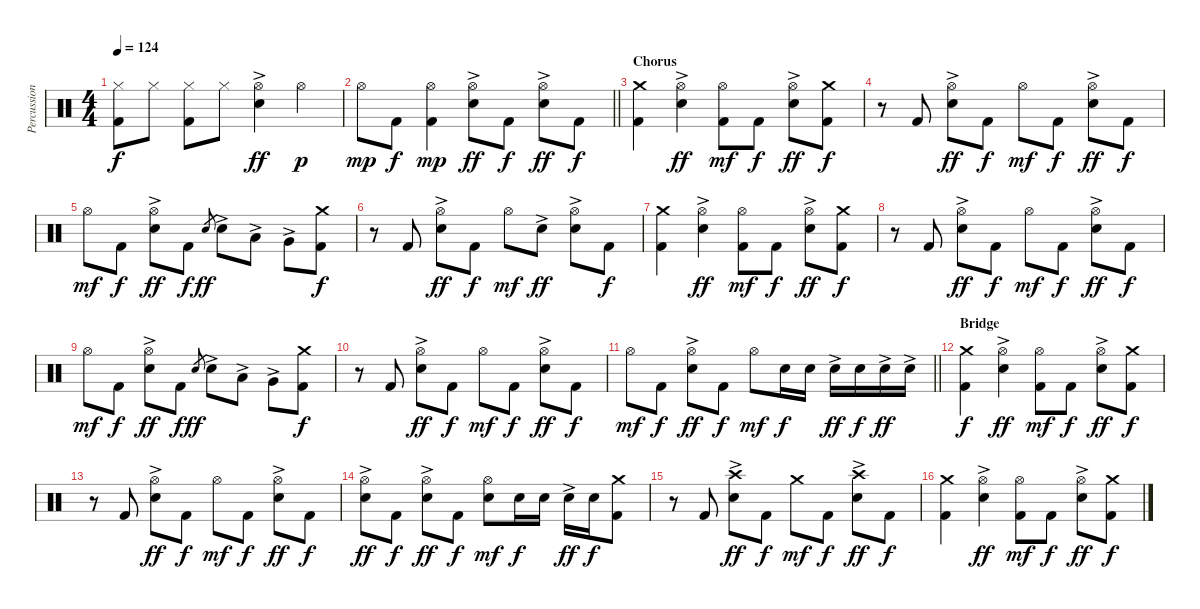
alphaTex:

\track ("Percussion" "Percussion") {instrument percussion}
\staff {score}
\articulation defaults
\ts (4 4)
\tempo 124
\clef neutral
\ks c
("Hi-Hat (closed)" "Kick (hit) 2").8{dy f} "Hi-Hat (closed)".8 ("Hi-Hat (closed)" "Kick (hit) 2").8 "Hi-Hat (closed)".8 ("Hi-Hat (open)" "Electric Snare (hit)"{ac}).4{dy ff} "Hi-Hat (open)".4{dy p} |
\barLineRight lightlight "Hi-Hat (open)".8{dy mp} "Kick (hit) 2".8{dy f}
("Hi-Hat (open)" "Kick (hit) 2").4{dy mp} ("Hi-Hat (open)" "Electric Snare (hit)"{ac}).8{dy ff} "Kick (hit) 2".8{dy f} ("Hi-Hat (open)" "Electric Snare (hit)"{ac}).8{dy ff} "Kick (hit) 2".8{dy f} |
\section ("" "Chorus")
("Crash medium (hit)" "Kick (hit) 2").4 ("Hi-Hat (open)" "Electric Snare (hit)"{ac}).4{dy ff} ("Hi-Hat (open)" "Kick (hit) 2").8{dy mf} "Kick (hit) 2".8{dy f} ("Hi-Hat (open)" "Electric Snare (hit)"{ac}).8{dy ff} ("Crash medium (hit)" "Kick (hit) 2").8{dy f} |
r.8 "Kick (hit) 2".8 ("Hi-Hat (open)" "Electric Snare (hit)"{ac}).8{dy ff} "Kick (hit) 2".8{dy f} "Hi-Hat (open)".8{dy mf} "Kick (hit) 2".8{dy f} ("Hi-Hat (open)" "Electric Snare (hit)"{ac}).8{dy ff} "Kick (hit) 2".8{dy f} |
"Hi-Hat (open)".8{dy mf} "Kick (hit) 2".8{dy f} ("Hi-Hat (open)" "Electric Snare (hit)"{ac}).8{dy ff} "Kick (hit) 2".8{dy f} "Electric Snare (hit)".8{gr dy ff} "Electric Snare (hit)"{ac}.8 "Low Tom (hit)"{ac}.8 "Very Low Tom (hit)"{ac}.8 ("Crash medium (hit)" "Kick (hit) 2").8{dy f} |
r.8 "Kick (hit) 2".8 ("Hi-Hat (open)" "Electric Snare (hit)"{ac}).8{dy ff} "Kick (hit) 2".8{dy f} "Hi-Hat (open)".8{dy mf} "Electric Snare (hit)"{ac}.8{dy ff} ("Hi-Hat (open)" "Electric Snare (hit)"{ac}).8 "Kick (hit) 2".8{dy f} |
("Crash medium (hit)" "Kick (hit) 2").4 ("Hi-Hat (open)" "Electric Snare (hit)"{ac}).4{dy ff} ("Hi-Hat (open)" "Kick (hit) 2").8{dy mf} "Kick (hit) 2".8{dy f} ("Hi-Hat (open)" "Electric Snare (hit)"{ac}).8{dy ff} ("Crash medium (hit)" "Kick (hit) 2").8{dy f} |
r.8 "Kick (hit) 2".8 ("Hi-Hat (open)" "Electric Snare (hit)"{ac}).8{dy ff} "Kick (hit) 2".8{dy f} "Hi-Hat (open)".8{dy mf} "Kick (hit) 2".8{dy f} ("Hi-Hat (open)" "Electric Snare (hit)"{ac}).8{dy ff} "Kick (hit) 2".8{dy f} |
"Hi-Hat (open)".8{dy mf} "Kick (hit) 2".8{dy f} ("Hi-Hat (open)" "Electric Snare (hit)"{ac}).8{dy ff} "Kick (hit) 2".8{dy f} "Electric Snare (hit)".8{gr dy ff} "Electric Snare (hit)"{ac}.8 "Low Tom (hit)"{ac}.8 "Very Low Tom (hit)"{ac}.8 ("Crash medium (hit)" "Kick (hit) 2").8{dy f} |
r.8 "Kick (hit) 2".8 ("Hi-Hat (open)" "Electric Snare (hit)"{ac}).8{dy ff} "Kick (hit) 2".8{dy f} "Hi-Hat (open)".8{dy mf} "Kick (hit) 2".8{dy f} ("Hi-Hat (open)" "Electric Snare (hit)"{ac}).8{dy ff} "Kick (hit) 2".8{dy f} |
\barLineRight lightlight "Hi-Hat (open)".8{dy mf} "Kick (hit) 2".8{dy f}
("Hi-Hat (open)" "Electric Snare (hit)"{ac}).8{dy ff} "Kick (hit) 2".8{dy f} "Hi-Hat (open)".8{dy mf} "Electric Snare (hit)".16{dy f} "Electric Snare (hit)".16 "Electric Snare (hit)"{ac}.16{dy ff} "Electric Snare (hit)".16{dy f} "Electric Snare (hit)"{ac}.16{dy ff} "Electric Snare (hit)"{ac}.16 |
\section ("" "Bridge")
("Crash medium (hit)" "Kick (hit) 2").4{dy f} ("Hi-Hat (open)" "Electric Snare (hit)"{ac}).4{dy ff} ("Hi-Hat (open)" "Kick (hit) 2").8{dy mf} "Kick (hit) 2".8{dy f} ("Hi-Hat (open)" "Electric Snare (hit)"{ac}).8{dy ff} ("Crash medium (hit)" "Kick (hit) 2").8{dy f} |
r.8 "Kick (hit) 2".8 ("Hi-Hat (open)" "Electric Snare (hit)"{ac}).8{dy ff} "Kick (hit) 2".8{dy f} "Hi-Hat (open)".8{dy mf} "Kick (hit) 2".8{dy f} ("Hi-Hat (open)" "Electric Snare (hit)"{ac}).8{dy ff} "Kick (hit) 2".8{dy f} |
("Hi-Hat (open)" "Electric Snare (hit)"{ac}).8{dy ff} "Kick (hit) 2".8{dy f} ("Hi-Hat (open)" "Electric Snare (hit)"{ac}).8{dy ff} "Kick (hit) 2".8{dy f} ("Hi-Hat (open)" "Electric Snare (hit)").8{dy mf} "Electric Snare (hit)".16{dy f} "Electric Snare (hit)".16 "Electric Snare (hit)"{ac}.16{dy ff} "Electric Snare (hit)".16{dy f} ("Crash medium (hit)" "Kick (hit) 2").8 |
r.8 "Kick (hit) 2".8 ("Crash high (hit)" "Electric Snare (hit)"{ac}).8{dy ff} "Kick (hit) 2".8{dy f} "Crash medium (hit)".8{dy mf} "Kick (hit) 2".8{dy f} ("Crash high (hit)" "Electric Snare (hit)"{ac}).8{dy ff} "Kick (hit) 2".8{dy f} |
("Crash medium (hit)" "Kick (hit) 2").4 ("Hi-Hat (open)" "Electric Snare (hit)"{ac}).4{dy ff} ("Hi-Hat (open)" "Kick (hit) 2").8{dy mf} "Kick (hit) 2".8{dy f} ("Hi-Hat (open)" "Electric Snare (hit)"{ac}).8{dy ff} ("Crash medium (hit)" "Kick (hit) 2").8{dy f}
